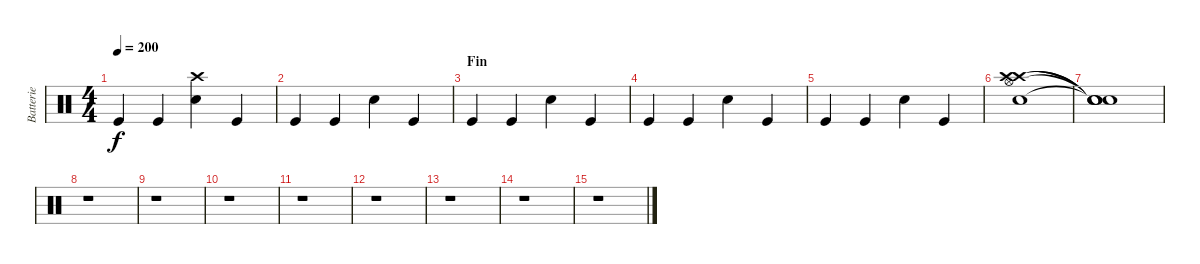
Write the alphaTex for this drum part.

\track ("Batterie" "Batterie") {instrument percussion}
\staff {score}
\articulation defaults
\ts (4 4)
\tempo 200
\clef neutral
\ks c "Kick (hit)".4{dy f} "Kick (hit)".4
("Electric Snare (hit)" "Crash high (hit)").4 "Kick (hit)".4 |
"Kick (hit)".4 "Kick (hit)".4 "Electric Snare (hit)".4 "Kick (hit)".4 |
\section ("" "Fin")
"Kick (hit)".4 "Kick (hit)".4 "Electric Snare (hit)".4 "Kick (hit)".4 |
"Kick (hit)".4 "Kick (hit)".4 "Electric Snare (hit)".4 "Kick (hit)".4 |
"Kick (hit)".4 "Kick (hit)".4 "Electric Snare (hit)".4 "Kick (hit)".4 |
("Electric Snare (hit)" "Crash high (hit)" "Hi-Hat (open)" "Crash high (hit)").1 |
("Snare (hit)"{t} "Snare (hit)"{t} "Snare (hit)"{t} "Snare (hit)"{t}).1 |
r.1 |
r.1 |
r.1 |
r.1 |
r.1 |
r.1 |
r.1 |
r.1
